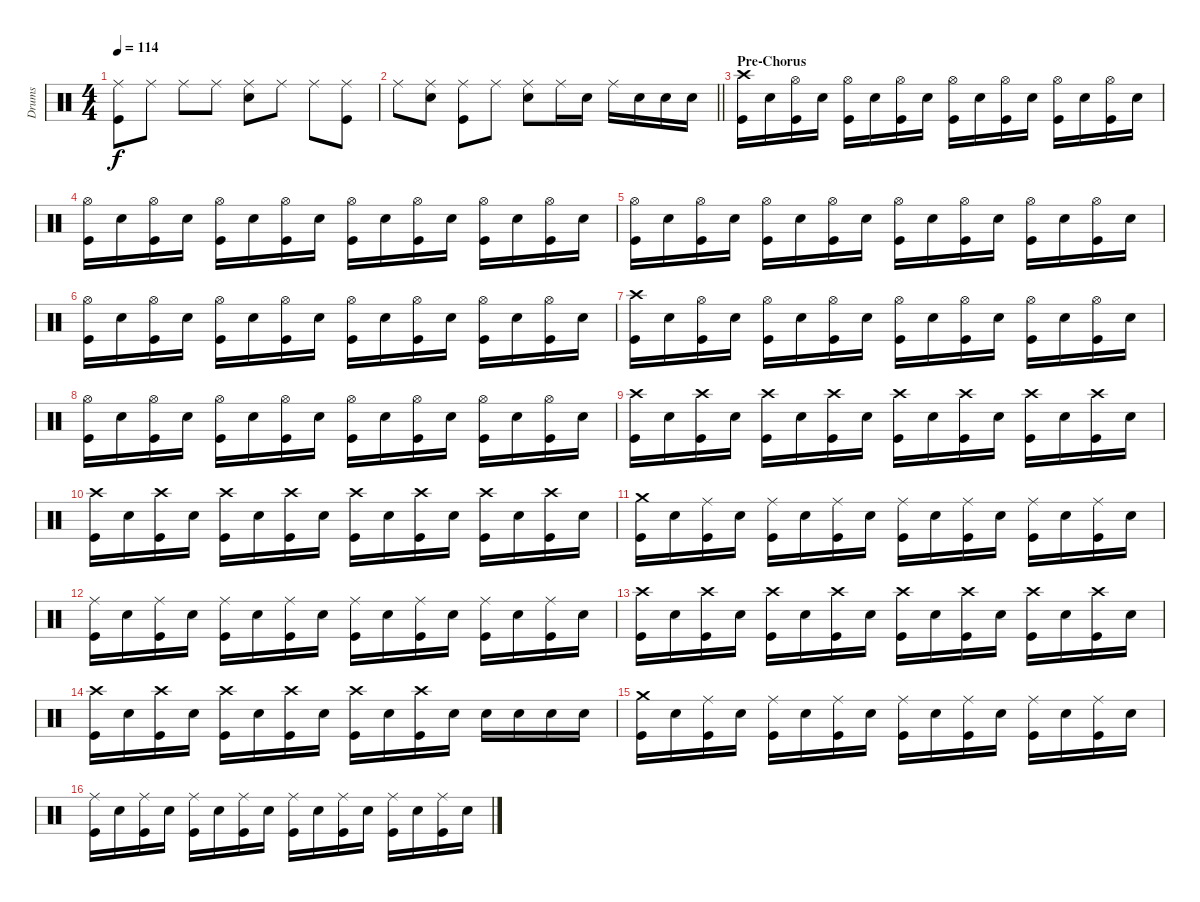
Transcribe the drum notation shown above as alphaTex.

\track ("Drums" "Drums") {instrument percussion}
\staff {score}
\articulation defaults
\ts (4 4)
\tempo 114
\clef neutral
\ks c
("Ride (middle)" "Kick (hit)").8{dy f} "Ride (middle)".8 "Ride (middle)".8 "Ride (middle)".8 ("Ride (middle)" "Snare (hit) 2").8 "Ride (middle)".8 "Ride (middle)".8 ("Ride (middle)" "Kick (hit)").8 |
\barLineRight lightlight "Ride (middle)".8
("Ride (middle)" "Snare (hit) 2").8 ("Ride (middle)" "Kick (hit)").8 "Ride (middle)".8 ("Ride (middle)" "Snare (hit) 2").8 "Ride (middle)".16 "Snare (hit) 2".16 "Ride (middle)".16 "Snare (hit) 2".16 "Snare (hit) 2".16 "Snare (hit) 2".16 |
\section ("" "Pre-Chorus")
("Crash high (hit)" "Kick (hit)").16 "Snare (hit) 2".16 ("Hi-Hat (open)" "Kick (hit)").16 "Snare (hit) 2".16 ("Hi-Hat (open)" "Kick (hit)").16 "Snare (hit) 2".16 ("Hi-Hat (open)" "Kick (hit)").16 "Snare (hit) 2".16 ("Hi-Hat (open)" "Kick (hit)").16 "Snare (hit) 2".16 ("Hi-Hat (open)" "Kick (hit)").16 "Snare (hit) 2".16 ("Hi-Hat (open)" "Kick (hit)").16 "Snare (hit) 2".16 ("Hi-Hat (open)" "Kick (hit)").16 "Snare (hit) 2".16 |
("Hi-Hat (open)" "Kick (hit)").16 "Snare (hit) 2".16 ("Hi-Hat (open)" "Kick (hit)").16 "Snare (hit) 2".16 ("Hi-Hat (open)" "Kick (hit)").16 "Snare (hit) 2".16 ("Hi-Hat (open)" "Kick (hit)").16 "Snare (hit) 2".16 ("Hi-Hat (open)" "Kick (hit)").16 "Snare (hit) 2".16 ("Hi-Hat (open)" "Kick (hit)").16 "Snare (hit) 2".16 ("Hi-Hat (open)" "Kick (hit)").16 "Snare (hit) 2".16 ("Hi-Hat (open)" "Kick (hit)").16 "Snare (hit) 2".16 |
("Hi-Hat (open)" "Kick (hit)").16 "Snare (hit) 2".16 ("Hi-Hat (open)" "Kick (hit)").16 "Snare (hit) 2".16 ("Hi-Hat (open)" "Kick (hit)").16 "Snare (hit) 2".16 ("Hi-Hat (open)" "Kick (hit)").16 "Snare (hit) 2".16 ("Hi-Hat (open)" "Kick (hit)").16 "Snare (hit) 2".16 ("Hi-Hat (open)" "Kick (hit)").16 "Snare (hit) 2".16 ("Hi-Hat (open)" "Kick (hit)").16 "Snare (hit) 2".16 ("Hi-Hat (open)" "Kick (hit)").16 "Snare (hit) 2".16 |
("Hi-Hat (open)" "Kick (hit)").16 "Snare (hit) 2".16 ("Hi-Hat (open)" "Kick (hit)").16 "Snare (hit) 2".16 ("Hi-Hat (open)" "Kick (hit)").16 "Snare (hit) 2".16 ("Hi-Hat (open)" "Kick (hit)").16 "Snare (hit) 2".16 ("Hi-Hat (open)" "Kick (hit)").16 "Snare (hit) 2".16 ("Hi-Hat (open)" "Kick (hit)").16 "Snare (hit) 2".16 ("Hi-Hat (open)" "Kick (hit)").16 "Snare (hit) 2".16 ("Hi-Hat (open)" "Kick (hit)").16 "Snare (hit) 2".16 |
("Crash high (hit)" "Kick (hit)").16 "Snare (hit) 2".16 ("Hi-Hat (open)" "Kick (hit)").16 "Snare (hit) 2".16 ("Hi-Hat (open)" "Kick (hit)").16 "Snare (hit) 2".16 ("Hi-Hat (open)" "Kick (hit)").16 "Snare (hit) 2".16 ("Hi-Hat (open)" "Kick (hit)").16 "Snare (hit) 2".16 ("Hi-Hat (open)" "Kick (hit)").16 "Snare (hit) 2".16 ("Hi-Hat (open)" "Kick (hit)").16 "Snare (hit) 2".16 ("Hi-Hat (open)" "Kick (hit)").16 "Snare (hit) 2".16 |
("Hi-Hat (open)" "Kick (hit)").16 "Snare (hit) 2".16 ("Hi-Hat (open)" "Kick (hit)").16 "Snare (hit) 2".16 ("Hi-Hat (open)" "Kick (hit)").16 "Snare (hit) 2".16 ("Hi-Hat (open)" "Kick (hit)").16 "Snare (hit) 2".16 ("Hi-Hat (open)" "Kick (hit)").16 "Snare (hit) 2".16 ("Hi-Hat (open)" "Kick (hit)").16 "Snare (hit) 2".16 ("Hi-Hat (open)" "Kick (hit)").16 "Snare (hit) 2".16 ("Hi-Hat (open)" "Kick (hit)").16 "Snare (hit) 2".16 |
("Crash high (hit)" "Kick (hit)").16 "Snare (hit) 2".16 ("Crash high (hit)" "Kick (hit)").16 "Snare (hit) 2".16 ("Crash high (hit)" "Kick (hit)").16 "Snare (hit) 2".16 ("Crash high (hit)" "Kick (hit)").16 "Snare (hit) 2".16 ("Crash high (hit)" "Kick (hit)").16 "Snare (hit) 2".16 ("Crash high (hit)" "Kick (hit)").16 "Snare (hit) 2".16 ("Crash high (hit)" "Kick (hit)").16 "Snare (hit) 2".16 ("Crash high (hit)" "Kick (hit)").16 "Snare (hit) 2".16 |
("Crash high (hit)" "Kick (hit)").16 "Snare (hit) 2".16 ("Crash high (hit)" "Kick (hit)").16 "Snare (hit) 2".16 ("Crash high (hit)" "Kick (hit)").16 "Snare (hit) 2".16 ("Crash high (hit)" "Kick (hit)").16 "Snare (hit) 2".16 ("Crash high (hit)" "Kick (hit)").16 "Snare (hit) 2".16 ("Crash high (hit)" "Kick (hit)").16 "Snare (hit) 2".16 ("Crash high (hit)" "Kick (hit)").16 "Snare (hit) 2".16 ("Crash high (hit)" "Kick (hit)").16 "Snare (hit) 2".16 |
("Crash medium (hit)" "Kick (hit)").16 "Snare (hit) 2".16 ("Ride (middle)" "Kick (hit)").16 "Snare (hit) 2".16 ("Ride (middle)" "Kick (hit)").16 "Snare (hit) 2".16 ("Ride (middle)" "Kick (hit)").16 "Snare (hit) 2".16 ("Ride (middle)" "Kick (hit)").16 "Snare (hit) 2".16 ("Ride (middle)" "Kick (hit)").16 "Snare (hit) 2".16 ("Ride (middle)" "Kick (hit)").16 "Snare (hit) 2".16 ("Ride (middle)" "Kick (hit)").16 "Snare (hit) 2".16 |
("Ride (middle)" "Kick (hit)").16 "Snare (hit) 2".16 ("Ride (middle)" "Kick (hit)").16 "Snare (hit) 2".16 ("Ride (middle)" "Kick (hit)").16 "Snare (hit) 2".16 ("Ride (middle)" "Kick (hit)").16 "Snare (hit) 2".16 ("Ride (middle)" "Kick (hit)").16 "Snare (hit) 2".16 ("Ride (middle)" "Kick (hit)").16 "Snare (hit) 2".16 ("Ride (middle)" "Kick (hit)").16 "Snare (hit) 2".16 ("Ride (middle)" "Kick (hit)").16 "Snare (hit) 2".16 |
("Crash high (hit)" "Kick (hit)").16 "Snare (hit) 2".16 ("Crash high (hit)" "Kick (hit)").16 "Snare (hit) 2".16 ("Crash high (hit)" "Kick (hit)").16 "Snare (hit) 2".16 ("Crash high (hit)" "Kick (hit)").16 "Snare (hit) 2".16 ("Crash high (hit)" "Kick (hit)").16 "Snare (hit) 2".16 ("Crash high (hit)" "Kick (hit)").16 "Snare (hit) 2".16 ("Crash high (hit)" "Kick (hit)").16 "Snare (hit) 2".16 ("Crash high (hit)" "Kick (hit)").16 "Snare (hit) 2".16 |
("Crash high (hit)" "Kick (hit)").16 "Snare (hit) 2".16 ("Crash high (hit)" "Kick (hit)").16 "Snare (hit) 2".16 ("Crash high (hit)" "Kick (hit)").16 "Snare (hit) 2".16 ("Crash high (hit)" "Kick (hit)").16 "Snare (hit) 2".16 ("Crash high (hit)" "Kick (hit)").16 "Snare (hit) 2".16 ("Crash high (hit)" "Kick (hit)").16 "Snare (hit) 2".16 "Snare (hit) 2".16 "Snare (hit) 2".16 "Snare (hit) 2".16 "Snare (hit) 2".16 |
("Crash medium (hit)" "Kick (hit)").16 "Snare (hit) 2".16 ("Ride (middle)" "Kick (hit)").16 "Snare (hit) 2".16 ("Ride (middle)" "Kick (hit)").16 "Snare (hit) 2".16 ("Ride (middle)" "Kick (hit)").16 "Snare (hit) 2".16 ("Ride (middle)" "Kick (hit)").16 "Snare (hit) 2".16 ("Ride (middle)" "Kick (hit)").16 "Snare (hit) 2".16 ("Ride (middle)" "Kick (hit)").16 "Snare (hit) 2".16 ("Ride (middle)" "Kick (hit)").16 "Snare (hit) 2".16 |
("Ride (middle)" "Kick (hit)").16 "Snare (hit) 2".16 ("Ride (middle)" "Kick (hit)").16 "Snare (hit) 2".16 ("Ride (middle)" "Kick (hit)").16 "Snare (hit) 2".16 ("Ride (middle)" "Kick (hit)").16 "Snare (hit) 2".16 ("Ride (middle)" "Kick (hit)").16 "Snare (hit) 2".16 ("Ride (middle)" "Kick (hit)").16 "Snare (hit) 2".16 ("Ride (middle)" "Kick (hit)").16 "Snare (hit) 2".16 ("Ride (middle)" "Kick (hit)").16 "Snare (hit) 2".16
